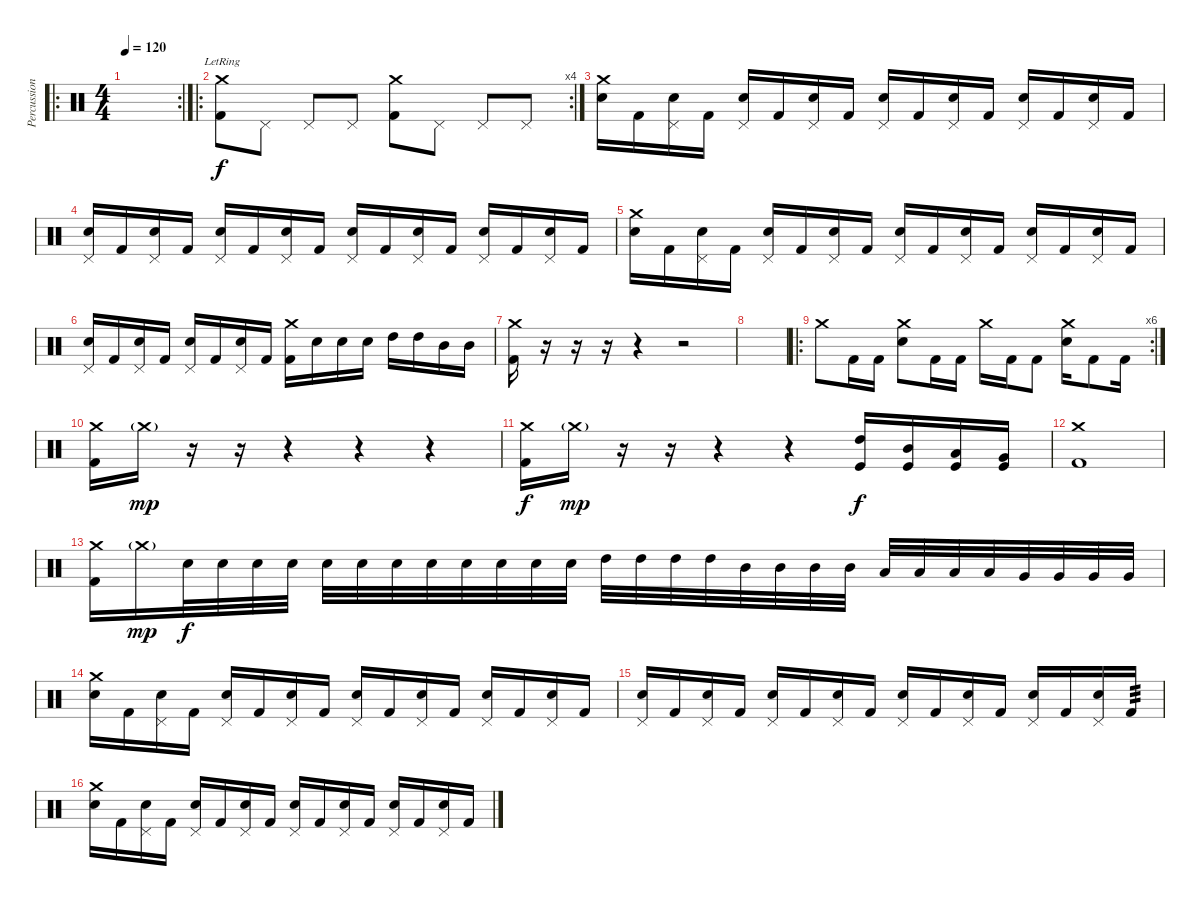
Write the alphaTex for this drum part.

\track ("Percussion" "Percussion") {instrument percussion}
\staff {score}
\articulation defaults
\ro
\rc 2
\ts (4 4)
\tempo 120
\clef neutral
\ks c
|
\ro
\rc 4
("Crash medium (hit)"{lr} "Kick (hit) 2").8 "Pedal Hi-Hat (hit)".8 "Pedal Hi-Hat (hit)".8 "Pedal Hi-Hat (hit)".8 ("Crash medium (hit)" "Kick (hit) 2").8 "Pedal Hi-Hat (hit)".8 "Pedal Hi-Hat (hit)".8 "Pedal Hi-Hat (hit)".8 |
("Crash medium (hit)" "Electric Snare (hit)").16 "Kick (hit) 2".16 ("Pedal Hi-Hat (hit)" "Electric Snare (hit)").16 "Kick (hit) 2".16 ("Pedal Hi-Hat (hit)" "Electric Snare (hit)").16 "Kick (hit) 2".16 ("Pedal Hi-Hat (hit)" "Electric Snare (hit)").16 "Kick (hit) 2".16 ("Pedal Hi-Hat (hit)" "Electric Snare (hit)").16 "Kick (hit) 2".16 ("Pedal Hi-Hat (hit)" "Electric Snare (hit)").16 "Kick (hit) 2".16 ("Pedal Hi-Hat (hit)" "Electric Snare (hit)").16 "Kick (hit) 2".16 ("Pedal Hi-Hat (hit)" "Electric Snare (hit)").16 "Kick (hit) 2".16 |
("Pedal Hi-Hat (hit)" "Electric Snare (hit)").16 "Kick (hit) 2".16 ("Pedal Hi-Hat (hit)" "Electric Snare (hit)").16 "Kick (hit) 2".16 ("Pedal Hi-Hat (hit)" "Electric Snare (hit)").16 "Kick (hit) 2".16 ("Pedal Hi-Hat (hit)" "Electric Snare (hit)").16 "Kick (hit) 2".16 ("Pedal Hi-Hat (hit)" "Electric Snare (hit)").16 "Kick (hit) 2".16 ("Pedal Hi-Hat (hit)" "Electric Snare (hit)").16 "Kick (hit) 2".16 ("Pedal Hi-Hat (hit)" "Electric Snare (hit)").16 "Kick (hit) 2".16 ("Pedal Hi-Hat (hit)" "Electric Snare (hit)").16 "Kick (hit) 2".16 |
("Crash medium (hit)" "Electric Snare (hit)").16 "Kick (hit) 2".16 ("Pedal Hi-Hat (hit)" "Electric Snare (hit)").16 "Kick (hit) 2".16 ("Pedal Hi-Hat (hit)" "Electric Snare (hit)").16 "Kick (hit) 2".16 ("Pedal Hi-Hat (hit)" "Electric Snare (hit)").16 "Kick (hit) 2".16 ("Pedal Hi-Hat (hit)" "Electric Snare (hit)").16 "Kick (hit) 2".16 ("Pedal Hi-Hat (hit)" "Electric Snare (hit)").16 "Kick (hit) 2".16 ("Pedal Hi-Hat (hit)" "Electric Snare (hit)").16 "Kick (hit) 2".16 ("Pedal Hi-Hat (hit)" "Electric Snare (hit)").16 "Kick (hit) 2".16 |
("Pedal Hi-Hat (hit)" "Electric Snare (hit)").16 "Kick (hit) 2".16 ("Pedal Hi-Hat (hit)" "Electric Snare (hit)").16 "Kick (hit) 2".16 ("Pedal Hi-Hat (hit)" "Electric Snare (hit)").16 "Kick (hit) 2".16 ("Pedal Hi-Hat (hit)" "Electric Snare (hit)").16 "Kick (hit) 2".16 ("Crash medium (hit)" "Kick (hit) 2").16 "Electric Snare (hit)".16 "Electric Snare (hit)".16 "Electric Snare (hit)".16 "High Tom (hit)".16 "High Tom (hit)".16 "Mid Tom (hit)".16 "Mid Tom (hit)".16 |
("Crash medium (hit)" "Kick (hit) 2").16 r.16 r.16 r.16 r.4 r.2 |
|
\ro
\rc 6 "Crash medium (hit)".8 "Kick (hit) 2".16 "Kick (hit) 2".16
("Crash medium (hit)" "Electric Snare (hit)").8 "Kick (hit) 2".16 "Kick (hit) 2".16 "Crash medium (hit)".16 "Kick (hit) 2".16 "Kick (hit) 2".8 ("Crash medium (hit)" "Electric Snare (hit)").16 "Kick (hit) 2".8 "Kick (hit) 2".16 |
("Crash medium (hit)" "Kick (hit) 2").16 "Crash medium (hit)"{g}.16{dy mp} r.16 r.16 r.4 r.4 r.4 |
("Crash medium (hit)" "Kick (hit) 2").16{dy f} "Crash medium (hit)"{g}.16{dy mp} r.16 r.16 r.4 r.4 ("High Tom (hit)" "Kick (hit)").16{dy f} ("Mid Tom (hit)" "Kick (hit)").16 ("Low Tom (hit)" "Kick (hit)").16 ("Very Low Tom (hit)" "Kick (hit)").16 |
("Crash medium (hit)" "Kick (hit) 2").1 |
("Crash medium (hit)" "Kick (hit) 2").16 "Crash medium (hit)"{g}.16{dy mp} "Electric Snare (hit)".32{dy f} "Electric Snare (hit)".32 "Electric Snare (hit)".32 "Electric Snare (hit)".32 "Electric Snare (hit)".32 "Electric Snare (hit)".32 "Electric Snare (hit)".32 "Electric Snare (hit)".32 "Electric Snare (hit)".32 "Electric Snare (hit)".32 "Electric Snare (hit)".32 "Electric Snare (hit)".32 "High Tom (hit)".32 "High Tom (hit)".32 "High Tom (hit)".32 "High Tom (hit)".32 "Mid Tom (hit)".32 "Mid Tom (hit)".32 "Mid Tom (hit)".32 "Mid Tom (hit)".32 "Low Tom (hit)".32 "Low Tom (hit)".32 "Low Tom (hit)".32 "Low Tom (hit)".32 "Very Low Tom (hit)".32 "Very Low Tom (hit)".32 "Very Low Tom (hit)".32 "Very Low Tom (hit)".32 |
("Crash medium (hit)" "Electric Snare (hit)").16 "Kick (hit) 2".16 ("Pedal Hi-Hat (hit)" "Electric Snare (hit)").16 "Kick (hit) 2".16 ("Pedal Hi-Hat (hit)" "Electric Snare (hit)").16 "Kick (hit) 2".16 ("Pedal Hi-Hat (hit)" "Electric Snare (hit)").16 "Kick (hit) 2".16 ("Pedal Hi-Hat (hit)" "Electric Snare (hit)").16 "Kick (hit) 2".16 ("Pedal Hi-Hat (hit)" "Electric Snare (hit)").16 "Kick (hit) 2".16 ("Pedal Hi-Hat (hit)" "Electric Snare (hit)").16 "Kick (hit) 2".16 ("Pedal Hi-Hat (hit)" "Electric Snare (hit)").16 "Kick (hit) 2".16 |
("Pedal Hi-Hat (hit)" "Electric Snare (hit)").16 "Kick (hit) 2".16 ("Pedal Hi-Hat (hit)" "Electric Snare (hit)").16 "Kick (hit) 2".16 ("Pedal Hi-Hat (hit)" "Electric Snare (hit)").16 "Kick (hit) 2".16 ("Pedal Hi-Hat (hit)" "Electric Snare (hit)").16 "Kick (hit) 2".16 ("Pedal Hi-Hat (hit)" "Electric Snare (hit)").16 "Kick (hit) 2".16 ("Pedal Hi-Hat (hit)" "Electric Snare (hit)").16 "Kick (hit) 2".16 ("Pedal Hi-Hat (hit)" "Electric Snare (hit)").16 "Kick (hit) 2".16 ("Pedal Hi-Hat (hit)" "Electric Snare (hit)").16 "Kick (hit) 2".16{tp 3} |
("Crash medium (hit)" "Electric Snare (hit)").16 "Kick (hit) 2".16 ("Pedal Hi-Hat (hit)" "Electric Snare (hit)").16 "Kick (hit) 2".16 ("Pedal Hi-Hat (hit)" "Electric Snare (hit)").16 "Kick (hit) 2".16 ("Pedal Hi-Hat (hit)" "Electric Snare (hit)").16 "Kick (hit) 2".16 ("Pedal Hi-Hat (hit)" "Electric Snare (hit)").16 "Kick (hit) 2".16 ("Pedal Hi-Hat (hit)" "Electric Snare (hit)").16 "Kick (hit) 2".16 ("Pedal Hi-Hat (hit)" "Electric Snare (hit)").16 "Kick (hit) 2".16 ("Pedal Hi-Hat (hit)" "Electric Snare (hit)").16 "Kick (hit) 2".16
